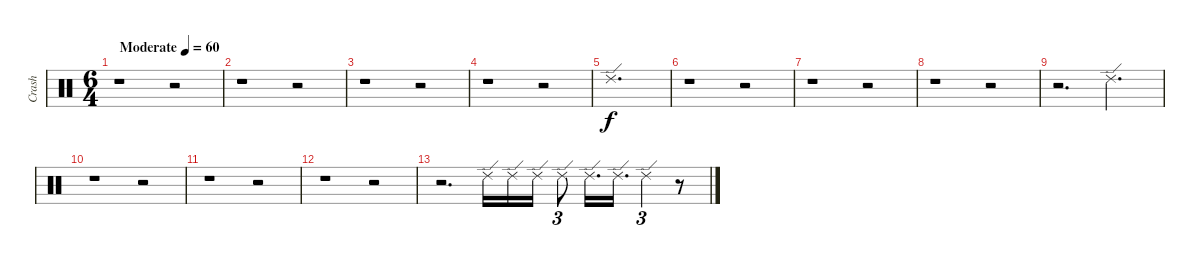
\track ("Crash" "Crash") {instrument percussion}
\staff
\articulation defaults
\ts (6 4)
\tempo (60 "Moderate")
\clef neutral
\ks c
r.1{dy f} r.2 |
r.1 r.2 |
r.1 r.2 |
r.1 r.2 |
"Ride (edge) 2".1{d} |
r.1 r.2 |
r.1 r.2 |
r.1 r.2 |
r.2{d} "Ride (edge) 2".2{d} |
r.1 r.2 |
r.1 r.2 |
r.1 r.2 |
r.2{d} "Ride (edge) 2".16 "Ride (edge) 2".16 "Ride (edge) 2".16 "Ride (edge) 2".8{tu (3 2)} "Ride (edge) 2".16{d} "Ride (edge) 2".16{d} "Ride (edge) 2".4{tu (3 2)} r.8
